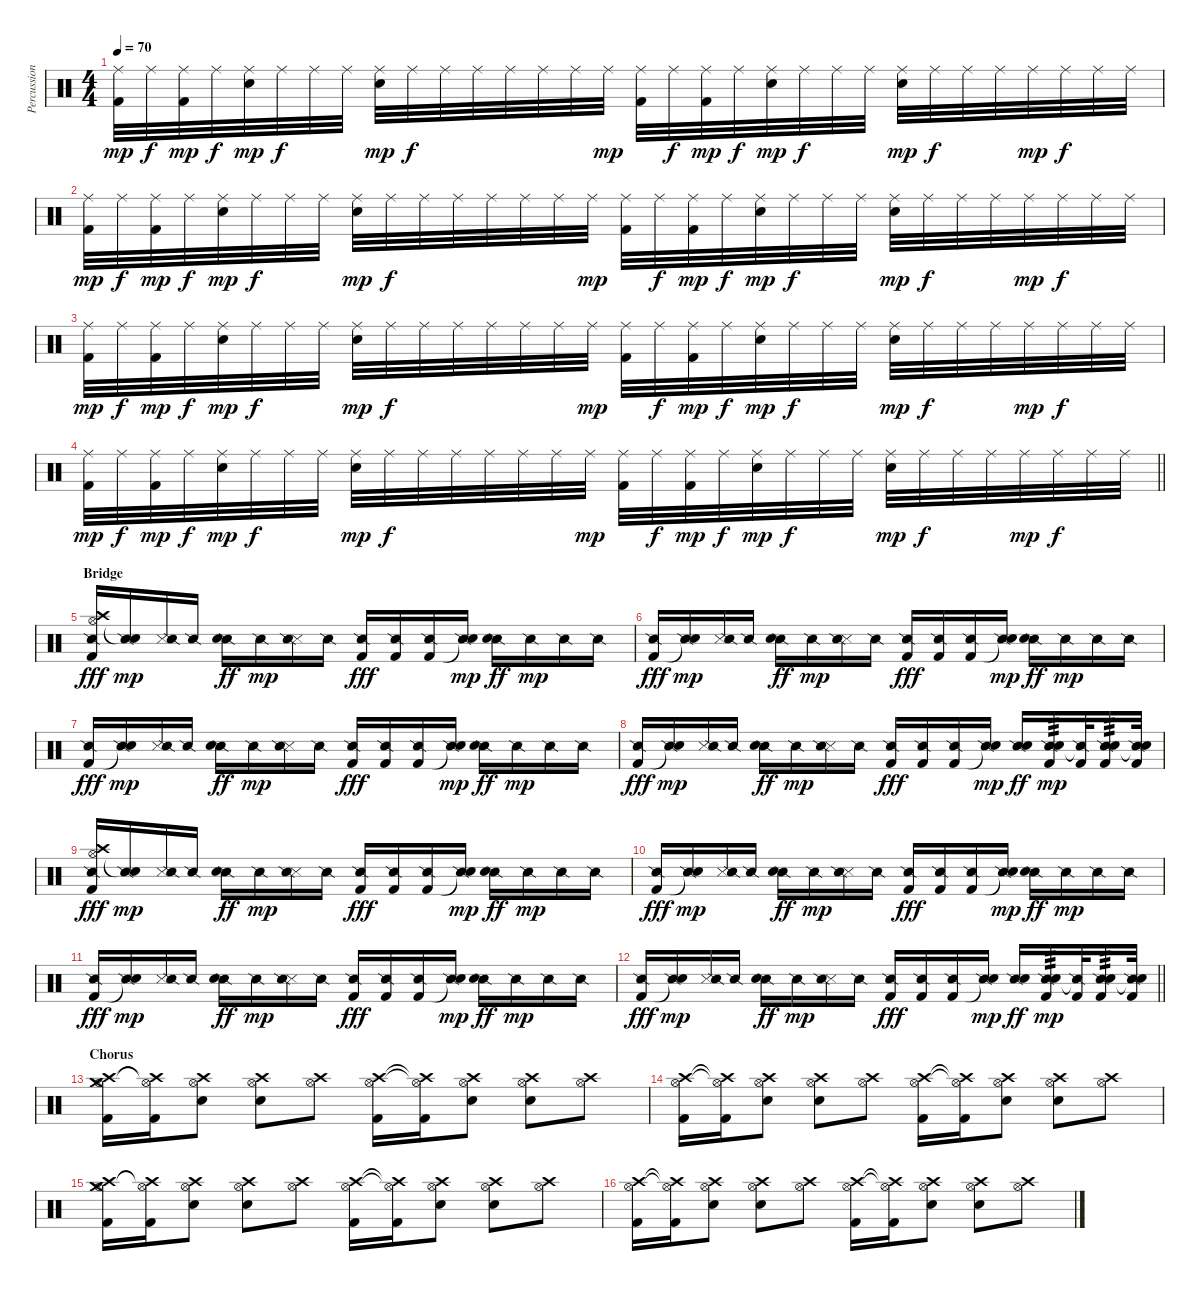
\track ("Percussion" "Percussion") {instrument percussion}
\staff {score}
\articulation defaults
\ts (4 4)
\tempo 70
\clef neutral
\ks c
("Ride (middle)" "Kick (hit) 2").32{dy mp} "Ride (middle)".32{dy f} ("Ride (middle)" "Kick (hit) 2").32{dy mp} "Ride (middle)".32{dy f} ("Ride (middle)" "Electric Snare (hit)").32{dy mp} "Ride (middle)".32{dy f} "Ride (middle)".32 "Ride (middle)".32 ("Ride (middle)" "Electric Snare (hit)").32{dy mp} "Ride (middle)".32{dy f} "Ride (middle)".32 "Ride (middle)".32 "Ride (middle)".32 "Ride (middle)".32 "Ride (middle)".32 "Ride (middle)".32{dy mp} ("Ride (middle)" "Kick (hit) 2").32 "Ride (middle)".32{dy f} ("Ride (middle)" "Kick (hit) 2").32{dy mp} "Ride (middle)".32{dy f} ("Ride (middle)" "Electric Snare (hit)").32{dy mp} "Ride (middle)".32{dy f} "Ride (middle)".32 "Ride (middle)".32 ("Ride (middle)" "Electric Snare (hit)").32{dy mp} "Ride (middle)".32{dy f} "Ride (middle)".32 "Ride (middle)".32 "Ride (middle)".32{dy mp} "Ride (middle)".32{dy f} "Ride (middle)".32 "Ride (middle)".32 |
("Ride (middle)" "Kick (hit) 2").32{dy mp} "Ride (middle)".32{dy f} ("Ride (middle)" "Kick (hit) 2").32{dy mp} "Ride (middle)".32{dy f} ("Ride (middle)" "Electric Snare (hit)").32{dy mp} "Ride (middle)".32{dy f} "Ride (middle)".32 "Ride (middle)".32 ("Ride (middle)" "Electric Snare (hit)").32{dy mp} "Ride (middle)".32{dy f} "Ride (middle)".32 "Ride (middle)".32 "Ride (middle)".32 "Ride (middle)".32 "Ride (middle)".32 "Ride (middle)".32{dy mp} ("Ride (middle)" "Kick (hit) 2").32 "Ride (middle)".32{dy f} ("Ride (middle)" "Kick (hit) 2").32{dy mp} "Ride (middle)".32{dy f} ("Ride (middle)" "Electric Snare (hit)").32{dy mp} "Ride (middle)".32{dy f} "Ride (middle)".32 "Ride (middle)".32 ("Ride (middle)" "Electric Snare (hit)").32{dy mp} "Ride (middle)".32{dy f} "Ride (middle)".32 "Ride (middle)".32 "Ride (middle)".32{dy mp} "Ride (middle)".32{dy f} "Ride (middle)".32 "Ride (middle)".32 |
("Ride (middle)" "Kick (hit) 2").32{dy mp} "Ride (middle)".32{dy f} ("Ride (middle)" "Kick (hit) 2").32{dy mp} "Ride (middle)".32{dy f} ("Ride (middle)" "Electric Snare (hit)").32{dy mp} "Ride (middle)".32{dy f} "Ride (middle)".32 "Ride (middle)".32 ("Ride (middle)" "Electric Snare (hit)").32{dy mp} "Ride (middle)".32{dy f} "Ride (middle)".32 "Ride (middle)".32 "Ride (middle)".32 "Ride (middle)".32 "Ride (middle)".32 "Ride (middle)".32{dy mp} ("Ride (middle)" "Kick (hit) 2").32 "Ride (middle)".32{dy f} ("Ride (middle)" "Kick (hit) 2").32{dy mp} "Ride (middle)".32{dy f} ("Ride (middle)" "Electric Snare (hit)").32{dy mp} "Ride (middle)".32{dy f} "Ride (middle)".32 "Ride (middle)".32 ("Ride (middle)" "Electric Snare (hit)").32{dy mp} "Ride (middle)".32{dy f} "Ride (middle)".32 "Ride (middle)".32 "Ride (middle)".32{dy mp} "Ride (middle)".32{dy f} "Ride (middle)".32 "Ride (middle)".32 |
\barLineRight lightlight
("Ride (middle)" "Kick (hit) 2").32{dy mp} "Ride (middle)".32{dy f} ("Ride (middle)" "Kick (hit) 2").32{dy mp} "Ride (middle)".32{dy f} ("Ride (middle)" "Electric Snare (hit)").32{dy mp} "Ride (middle)".32{dy f} "Ride (middle)".32 "Ride (middle)".32 ("Ride (middle)" "Electric Snare (hit)").32{dy mp} "Ride (middle)".32{dy f} "Ride (middle)".32 "Ride (middle)".32 "Ride (middle)".32 "Ride (middle)".32 "Ride (middle)".32 "Ride (middle)".32{dy mp} ("Ride (middle)" "Kick (hit) 2").32 "Ride (middle)".32{dy f} ("Ride (middle)" "Kick (hit) 2").32{dy mp} "Ride (middle)".32{dy f} ("Ride (middle)" "Electric Snare (hit)").32{dy mp} "Ride (middle)".32{dy f} "Ride (middle)".32 "Ride (middle)".32 ("Ride (middle)" "Electric Snare (hit)").32{dy mp} "Ride (middle)".32{dy f} "Ride (middle)".32 "Ride (middle)".32 "Ride (middle)".32{dy mp} "Ride (middle)".32{dy f} "Ride (middle)".32 "Ride (middle)".32 |
\section ("" "Bridge")
("Crash high (hit)" "Hi-Hat (open)" "Snare (side stick) 2" "Kick (hit) 2").16{dy fff} ("Snare (side stick) 2" "Snare (hit)"{t}).16{dy mp} ("Snare (side stick) 3" "Snare (side stick) 2").16 "Snare (side stick) 2".16 ("Snare (side stick) 2" "Electric Snare (hit)").16{dy ff} "Snare (side stick) 2".16{dy mp} ("Snare (side stick) 3" "Snare (side stick) 2").16 "Snare (side stick) 2".16 ("Snare (side stick) 2" "Kick (hit) 2").16{dy fff} ("Snare (side stick) 2" "Kick (hit) 2").16 ("Snare (side stick) 2" "Kick (hit) 2").16 ("Snare (side stick) 2" "Snare (hit)"{t}).16{dy mp} ("Snare (side stick) 2" "Electric Snare (hit)").16{dy ff} "Snare (side stick) 2".16{dy mp} "Snare (side stick) 2".16 "Snare (side stick) 2".16 |
("Snare (side stick) 2" "Kick (hit) 2").16{dy fff} ("Snare (side stick) 2" "Snare (hit)"{t}).16{dy mp} ("Snare (side stick) 3" "Snare (side stick) 2").16 "Snare (side stick) 2".16 ("Snare (side stick) 2" "Electric Snare (hit)").16{dy ff} "Snare (side stick) 2".16{dy mp} ("Snare (side stick) 3" "Snare (side stick) 2").16 "Snare (side stick) 2".16 ("Snare (side stick) 2" "Kick (hit) 2").16{dy fff} ("Snare (side stick) 2" "Kick (hit) 2").16 ("Snare (side stick) 2" "Kick (hit) 2").16 ("Snare (side stick) 2" "Snare (hit)"{t}).16{dy mp} ("Snare (side stick) 2" "Electric Snare (hit)").16{dy ff} "Snare (side stick) 2".16{dy mp} "Snare (side stick) 2".16 "Snare (side stick) 2".16 |
("Snare (side stick) 2" "Kick (hit) 2").16{dy fff} ("Snare (side stick) 2" "Snare (hit)"{t}).16{dy mp} ("Snare (side stick) 3" "Snare (side stick) 2").16 "Snare (side stick) 2".16 ("Snare (side stick) 2" "Electric Snare (hit)").16{dy ff} "Snare (side stick) 2".16{dy mp} ("Snare (side stick) 3" "Snare (side stick) 2").16 "Snare (side stick) 2".16 ("Snare (side stick) 2" "Kick (hit) 2").16{dy fff} ("Snare (side stick) 2" "Kick (hit) 2").16 ("Snare (side stick) 2" "Kick (hit) 2").16 ("Snare (side stick) 2" "Snare (hit)"{t}).16{dy mp} ("Snare (side stick) 2" "Electric Snare (hit)").16{dy ff} "Snare (side stick) 2".16{dy mp} "Snare (side stick) 2".16 "Snare (side stick) 2".16 |
("Snare (side stick) 2" "Kick (hit) 2").16{dy fff} ("Snare (side stick) 2" "Snare (hit)"{t}).16{dy mp} ("Snare (side stick) 3" "Snare (side stick) 2").16 "Snare (side stick) 2".16 ("Snare (side stick) 2" "Electric Snare (hit)").16{dy ff} "Snare (side stick) 2".16{dy mp} ("Snare (side stick) 3" "Snare (side stick) 2").16 "Snare (side stick) 2".16 ("Snare (side stick) 2" "Kick (hit) 2").16{dy fff} ("Snare (side stick) 2" "Kick (hit) 2").16 ("Snare (side stick) 2" "Kick (hit) 2").16 ("Snare (side stick) 2" "Snare (hit)"{t}).16{dy mp} ("Snare (side stick) 2" "Electric Snare (hit)").16{dy ff} ("Snare (side stick) 2" "Electric Snare (hit)" "Kick (hit) 2").16{tp 3 dy mp} ("Snare (side stick) 2"{t} "Kick (hit) 2").32 ("Snare (side stick) 2" "Electric Snare (hit)" "Kick (hit) 2").16{tp 3} ("Snare (side stick) 2"{t} "Electric Snare (hit)" "Kick (hit) 2").32 |
("Crash high (hit)" "Hi-Hat (open)" "Snare (side stick) 2" "Kick (hit) 2").16{dy fff} ("Snare (side stick) 2" "Snare (hit)"{t}).16{dy mp} ("Snare (side stick) 3" "Snare (side stick) 2").16 "Snare (side stick) 2".16 ("Snare (side stick) 2" "Electric Snare (hit)").16{dy ff} "Snare (side stick) 2".16{dy mp} ("Snare (side stick) 3" "Snare (side stick) 2").16 "Snare (side stick) 2".16 ("Snare (side stick) 2" "Kick (hit) 2").16{dy fff} ("Snare (side stick) 2" "Kick (hit) 2").16 ("Snare (side stick) 2" "Kick (hit) 2").16 ("Snare (side stick) 2" "Snare (hit)"{t}).16{dy mp} ("Snare (side stick) 2" "Electric Snare (hit)").16{dy ff} "Snare (side stick) 2".16{dy mp} "Snare (side stick) 2".16 "Snare (side stick) 2".16 |
("Snare (side stick) 2" "Kick (hit) 2").16{dy fff} ("Snare (side stick) 2" "Snare (hit)"{t}).16{dy mp} ("Snare (side stick) 3" "Snare (side stick) 2").16 "Snare (side stick) 2".16 ("Snare (side stick) 2" "Electric Snare (hit)").16{dy ff} "Snare (side stick) 2".16{dy mp} ("Snare (side stick) 3" "Snare (side stick) 2").16 "Snare (side stick) 2".16 ("Snare (side stick) 2" "Kick (hit) 2").16{dy fff} ("Snare (side stick) 2" "Kick (hit) 2").16 ("Snare (side stick) 2" "Kick (hit) 2").16 ("Snare (side stick) 2" "Snare (hit)"{t}).16{dy mp} ("Snare (side stick) 2" "Electric Snare (hit)").16{dy ff} "Snare (side stick) 2".16{dy mp} "Snare (side stick) 2".16 "Snare (side stick) 2".16 |
("Snare (side stick) 2" "Kick (hit) 2").16{dy fff} ("Snare (side stick) 2" "Snare (hit)"{t}).16{dy mp} ("Snare (side stick) 3" "Snare (side stick) 2").16 "Snare (side stick) 2".16 ("Snare (side stick) 2" "Electric Snare (hit)").16{dy ff} "Snare (side stick) 2".16{dy mp} ("Snare (side stick) 3" "Snare (side stick) 2").16 "Snare (side stick) 2".16 ("Snare (side stick) 2" "Kick (hit) 2").16{dy fff} ("Snare (side stick) 2" "Kick (hit) 2").16 ("Snare (side stick) 2" "Kick (hit) 2").16 ("Snare (side stick) 2" "Snare (hit)"{t}).16{dy mp} ("Snare (side stick) 2" "Electric Snare (hit)").16{dy ff} "Snare (side stick) 2".16{dy mp} "Snare (side stick) 2".16 "Snare (side stick) 2".16 |
\barLineRight lightlight
("Snare (side stick) 2" "Kick (hit) 2").16{dy fff} ("Snare (side stick) 2" "Snare (hit)"{t}).16{dy mp} ("Snare (side stick) 3" "Snare (side stick) 2").16 "Snare (side stick) 2".16 ("Snare (side stick) 2" "Electric Snare (hit)").16{dy ff} "Snare (side stick) 2".16{dy mp} ("Snare (side stick) 3" "Snare (side stick) 2").16 "Snare (side stick) 2".16 ("Snare (side stick) 2" "Kick (hit) 2").16{dy fff} ("Snare (side stick) 2" "Kick (hit) 2").16 ("Snare (side stick) 2" "Kick (hit) 2").16 ("Snare (side stick) 2" "Snare (hit)"{t}).16{dy mp} ("Snare (side stick) 2" "Electric Snare (hit)").16{dy ff} ("Snare (side stick) 2" "Electric Snare (hit)" "Kick (hit) 2").16{tp 3 dy mp} ("Snare (side stick) 2"{t} "Kick (hit) 2").32 ("Snare (side stick) 2" "Electric Snare (hit)" "Kick (hit) 2").16{tp 3} ("Snare (side stick) 2"{t} "Electric Snare (hit)" "Kick (hit) 2").32 |
\section ("" "Chorus")
("Crash medium (hit)" "Crash high (hit)" "Hi-Hat (open)" "Kick (hit) 2").16 ("Crash high (hit)"{t} "Hi-Hat (open)"{t} "Kick (hit) 2").16 ("Crash high (hit)" "Hi-Hat (open)" "Electric Snare (hit)").8 ("Crash high (hit)" "Hi-Hat (open)" "Electric Snare (hit)").8 ("Crash high (hit)" "Hi-Hat (open)").8 ("Crash high (hit)" "Hi-Hat (open)" "Kick (hit) 2").16 ("Crash high (hit)"{t} "Hi-Hat (open)"{t} "Kick (hit) 2").16 ("Crash high (hit)" "Hi-Hat (open)" "Electric Snare (hit)").8 ("Crash high (hit)" "Hi-Hat (open)" "Electric Snare (hit)").8 ("Crash high (hit)" "Hi-Hat (open)").8 |
("Crash high (hit)" "Hi-Hat (open)" "Kick (hit) 2").16 ("Crash high (hit)"{t} "Hi-Hat (open)"{t} "Kick (hit) 2").16 ("Crash high (hit)" "Hi-Hat (open)" "Electric Snare (hit)").8 ("Crash high (hit)" "Hi-Hat (open)" "Electric Snare (hit)").8 ("Crash high (hit)" "Hi-Hat (open)").8 ("Crash high (hit)" "Hi-Hat (open)" "Kick (hit) 2").16 ("Crash high (hit)"{t} "Hi-Hat (open)"{t} "Kick (hit) 2").16 ("Crash high (hit)" "Hi-Hat (open)" "Electric Snare (hit)").8 ("Crash high (hit)" "Hi-Hat (open)" "Electric Snare (hit)").8 ("Crash high (hit)" "Hi-Hat (open)").8 |
("Crash medium (hit)" "Crash high (hit)" "Hi-Hat (open)" "Kick (hit) 2").16 ("Crash high (hit)"{t} "Hi-Hat (open)"{t} "Kick (hit) 2").16 ("Crash high (hit)" "Hi-Hat (open)" "Electric Snare (hit)").8 ("Crash high (hit)" "Hi-Hat (open)" "Electric Snare (hit)").8 ("Crash high (hit)" "Hi-Hat (open)").8 ("Crash high (hit)" "Hi-Hat (open)" "Kick (hit) 2").16 ("Crash high (hit)"{t} "Hi-Hat (open)"{t} "Kick (hit) 2").16 ("Crash high (hit)" "Hi-Hat (open)" "Electric Snare (hit)").8 ("Crash high (hit)" "Hi-Hat (open)" "Electric Snare (hit)").8 ("Crash high (hit)" "Hi-Hat (open)").8 |
("Crash high (hit)" "Hi-Hat (open)" "Kick (hit) 2").16 ("Crash high (hit)"{t} "Hi-Hat (open)"{t} "Kick (hit) 2").16 ("Crash high (hit)" "Hi-Hat (open)" "Electric Snare (hit)").8 ("Crash high (hit)" "Hi-Hat (open)" "Electric Snare (hit)").8 ("Crash high (hit)" "Hi-Hat (open)").8 ("Crash high (hit)" "Hi-Hat (open)" "Kick (hit) 2").16 ("Crash high (hit)"{t} "Hi-Hat (open)"{t} "Kick (hit) 2").16 ("Crash high (hit)" "Hi-Hat (open)" "Electric Snare (hit)").8 ("Crash high (hit)" "Hi-Hat (open)" "Electric Snare (hit)").8 ("Crash high (hit)" "Hi-Hat (open)").8
